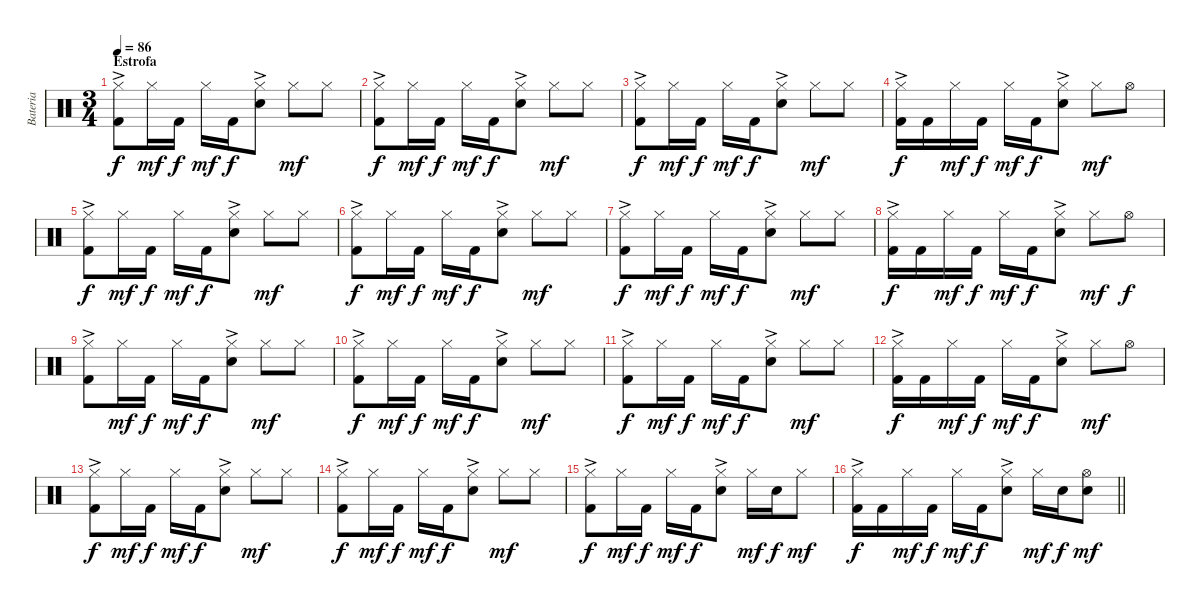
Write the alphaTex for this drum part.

\track ("Bateria" "Bateria") {instrument percussion}
\staff {score}
\articulation defaults
\ts (3 4)
\section ("" "Estrofa")
\tempo 86
\clef neutral
\ks c
("Hi-Hat (closed)"{ac} "Kick (hit) 2").8{dy f} "Hi-Hat (closed)".16{dy mf} "Kick (hit) 2".16{dy f} "Hi-Hat (closed)".16{dy mf} "Kick (hit) 2".16{dy f} ("Hi-Hat (closed)"{ac} "Snare (hit) 2").8 "Hi-Hat (closed)".8{dy mf} "Hi-Hat (closed)".8 |
("Hi-Hat (closed)"{ac} "Kick (hit) 2").8{dy f} "Hi-Hat (closed)".16{dy mf} "Kick (hit) 2".16{dy f} "Hi-Hat (closed)".16{dy mf} "Kick (hit) 2".16{dy f} ("Hi-Hat (closed)"{ac} "Snare (hit) 2").8 "Hi-Hat (closed)".8{dy mf} "Hi-Hat (closed)".8 |
("Hi-Hat (closed)"{ac} "Kick (hit) 2").8{dy f} "Hi-Hat (closed)".16{dy mf} "Kick (hit) 2".16{dy f} "Hi-Hat (closed)".16{dy mf} "Kick (hit) 2".16{dy f} ("Hi-Hat (closed)"{ac} "Snare (hit) 2").8 "Hi-Hat (closed)".8{dy mf} "Hi-Hat (closed)".8 |
("Hi-Hat (closed)"{ac} "Kick (hit) 2").16{dy f} "Kick (hit) 2".16 "Hi-Hat (closed)".16{dy mf} "Kick (hit) 2".16{dy f} "Hi-Hat (closed)".16{dy mf} "Kick (hit) 2".16{dy f} ("Hi-Hat (closed)"{ac} "Snare (hit) 2").8 "Hi-Hat (closed)".8{dy mf} "Hi-Hat (open)".8 |
("Hi-Hat (closed)"{ac} "Kick (hit) 2").8{dy f} "Hi-Hat (closed)".16{dy mf} "Kick (hit) 2".16{dy f} "Hi-Hat (closed)".16{dy mf} "Kick (hit) 2".16{dy f} ("Hi-Hat (closed)"{ac} "Snare (hit) 2").8 "Hi-Hat (closed)".8{dy mf} "Hi-Hat (closed)".8 |
("Hi-Hat (closed)"{ac} "Kick (hit) 2").8{dy f} "Hi-Hat (closed)".16{dy mf} "Kick (hit) 2".16{dy f} "Hi-Hat (closed)".16{dy mf} "Kick (hit) 2".16{dy f} ("Hi-Hat (closed)"{ac} "Snare (hit) 2").8 "Hi-Hat (closed)".8{dy mf} "Hi-Hat (closed)".8 |
("Hi-Hat (closed)"{ac} "Kick (hit) 2").8{dy f} "Hi-Hat (closed)".16{dy mf} "Kick (hit) 2".16{dy f} "Hi-Hat (closed)".16{dy mf} "Kick (hit) 2".16{dy f} ("Hi-Hat (closed)"{ac} "Snare (hit) 2").8 "Hi-Hat (closed)".8{dy mf} "Hi-Hat (closed)".8 |
("Hi-Hat (closed)"{ac} "Kick (hit) 2").16{dy f} "Kick (hit) 2".16 "Hi-Hat (closed)".16{dy mf} "Kick (hit) 2".16{dy f} "Hi-Hat (closed)".16{dy mf} "Kick (hit) 2".16{dy f} ("Hi-Hat (closed)"{ac} "Snare (hit) 2").8 "Hi-Hat (closed)".8{dy mf} "Hi-Hat (open)".8{dy f} |
("Hi-Hat (closed)"{ac} "Kick (hit) 2").8 "Hi-Hat (closed)".16{dy mf} "Kick (hit) 2".16{dy f} "Hi-Hat (closed)".16{dy mf} "Kick (hit) 2".16{dy f} ("Hi-Hat (closed)"{ac} "Snare (hit) 2").8 "Hi-Hat (closed)".8{dy mf} "Hi-Hat (closed)".8 |
("Hi-Hat (closed)"{ac} "Kick (hit) 2").8{dy f} "Hi-Hat (closed)".16{dy mf} "Kick (hit) 2".16{dy f} "Hi-Hat (closed)".16{dy mf} "Kick (hit) 2".16{dy f} ("Hi-Hat (closed)"{ac} "Snare (hit) 2").8 "Hi-Hat (closed)".8{dy mf} "Hi-Hat (closed)".8 |
("Hi-Hat (closed)"{ac} "Kick (hit) 2").8{dy f} "Hi-Hat (closed)".16{dy mf} "Kick (hit) 2".16{dy f} "Hi-Hat (closed)".16{dy mf} "Kick (hit) 2".16{dy f} ("Hi-Hat (closed)"{ac} "Snare (hit) 2").8 "Hi-Hat (closed)".8{dy mf} "Hi-Hat (closed)".8 |
("Hi-Hat (closed)"{ac} "Kick (hit) 2").16{dy f} "Kick (hit) 2".16 "Hi-Hat (closed)".16{dy mf} "Kick (hit) 2".16{dy f} "Hi-Hat (closed)".16{dy mf} "Kick (hit) 2".16{dy f} ("Hi-Hat (closed)"{ac} "Snare (hit) 2").8 "Hi-Hat (closed)".8{dy mf} "Hi-Hat (open)".8 |
("Hi-Hat (closed)"{ac} "Kick (hit) 2").8{dy f} "Hi-Hat (closed)".16{dy mf} "Kick (hit) 2".16{dy f} "Hi-Hat (closed)".16{dy mf} "Kick (hit) 2".16{dy f} ("Hi-Hat (closed)"{ac} "Snare (hit) 2").8 "Hi-Hat (closed)".8{dy mf} "Hi-Hat (closed)".8 |
("Hi-Hat (closed)"{ac} "Kick (hit) 2").8{dy f} "Hi-Hat (closed)".16{dy mf} "Kick (hit) 2".16{dy f} "Hi-Hat (closed)".16{dy mf} "Kick (hit) 2".16{dy f} ("Hi-Hat (closed)"{ac} "Snare (hit) 2").8 "Hi-Hat (closed)".8{dy mf} "Hi-Hat (closed)".8 |
("Hi-Hat (closed)"{ac} "Kick (hit) 2").8{dy f} "Hi-Hat (closed)".16{dy mf} "Kick (hit) 2".16{dy f} "Hi-Hat (closed)".16{dy mf} "Kick (hit) 2".16{dy f} ("Hi-Hat (closed)"{ac} "Snare (hit) 2").8 "Hi-Hat (closed)".16{dy mf} "Snare (hit) 2".16{dy f} "Hi-Hat (closed)".8{dy mf} |
\barLineRight lightlight
("Hi-Hat (closed)"{ac} "Kick (hit) 2").16{dy f} "Kick (hit) 2".16 "Hi-Hat (closed)".16{dy mf} "Kick (hit) 2".16{dy f} "Hi-Hat (closed)".16{dy mf} "Kick (hit) 2".16{dy f} ("Hi-Hat (closed)"{ac} "Snare (hit) 2").8 "Hi-Hat (closed)".16{dy mf} "Snare (hit) 2".16{dy f} ("Hi-Hat (open)" "Snare (hit) 2").8{dy mf}
